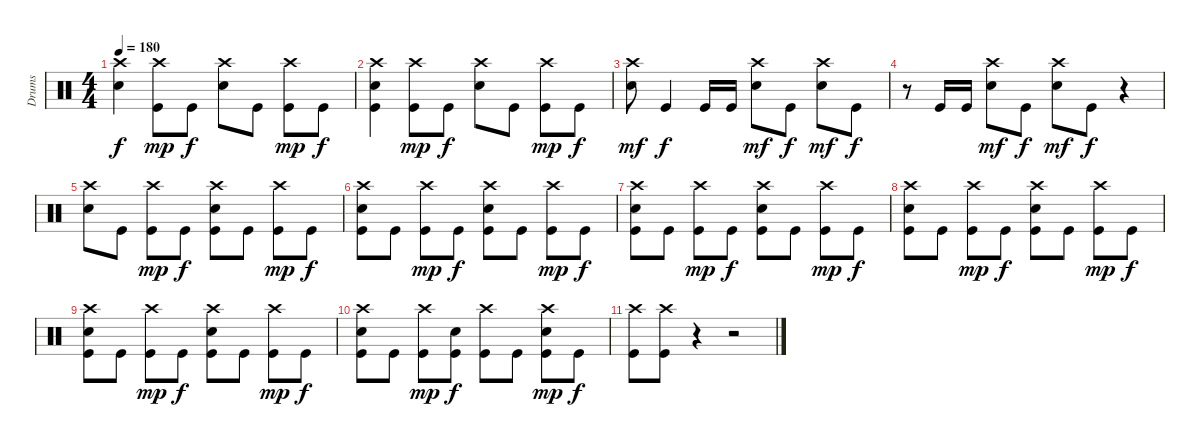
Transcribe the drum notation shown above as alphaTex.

\track ("Drums" "Drums") {instrument percussion}
\staff {score}
\articulation defaults
\ts (4 4)
\tempo 180
\clef neutral
\ks c
("Crash high (hit)" "Snare (hit) 2").4{dy f} ("Crash high (hit)" "Kick (hit)").8{dy mp} "Kick (hit)".8{dy f} ("Snare (hit) 2" "Crash high (hit)").8 "Kick (hit)".8 ("Crash high (hit)" "Kick (hit)").8{dy mp} "Kick (hit)".8{dy f} |
("Snare (hit) 2" "Crash high (hit)" "Kick (hit)").4 ("Crash high (hit)" "Kick (hit)").8{dy mp} "Kick (hit)".8{dy f} ("Crash high (hit)" "Snare (hit) 2").8 "Kick (hit)".8 ("Crash high (hit)" "Kick (hit)").8{dy mp} "Kick (hit)".8{dy f} |
("Crash high (hit)" "Snare (hit) 2").8{dy mf} "Kick (hit)".4{dy f} "Kick (hit)".16 "Kick (hit)".16 ("Crash high (hit)" "Snare (hit) 2").8{dy mf} "Kick (hit)".8{dy f} ("Crash high (hit)" "Snare (hit) 2").8{dy mf} "Kick (hit)".8{dy f} |
r.8 "Kick (hit)".16 "Kick (hit)".16 ("Crash high (hit)" "Snare (hit) 2").8{dy mf} "Kick (hit)".8{dy f} ("Crash high (hit)" "Snare (hit) 2").8{dy mf} "Kick (hit)".8{dy f} r.4 |
("Crash high (hit)" "Snare (hit) 2").8 "Kick (hit)".8 ("Crash high (hit)" "Kick (hit)").8{dy mp} "Kick (hit)".8{dy f} ("Snare (hit) 2" "Crash high (hit)" "Kick (hit)").8 "Kick (hit)".8 ("Crash high (hit)" "Kick (hit)").8{dy mp} "Kick (hit)".8{dy f} |
("Snare (hit) 2" "Crash high (hit)" "Kick (hit)").8 "Kick (hit)".8 ("Crash high (hit)" "Kick (hit)").8{dy mp} "Kick (hit)".8{dy f} ("Crash high (hit)" "Snare (hit) 2" "Kick (hit)").8 "Kick (hit)".8 ("Crash high (hit)" "Kick (hit)").8{dy mp} "Kick (hit)".8{dy f} |
("Crash high (hit)" "Snare (hit) 2" "Kick (hit)").8 "Kick (hit)".8 ("Crash high (hit)" "Kick (hit)").8{dy mp} "Kick (hit)".8{dy f} ("Snare (hit) 2" "Crash high (hit)" "Kick (hit)").8 "Kick (hit)".8 ("Crash high (hit)" "Kick (hit)").8{dy mp} "Kick (hit)".8{dy f} |
("Snare (hit) 2" "Crash high (hit)" "Kick (hit)").8 "Kick (hit)".8 ("Crash high (hit)" "Kick (hit)").8{dy mp} "Kick (hit)".8{dy f} ("Crash high (hit)" "Snare (hit) 2" "Kick (hit)").8 "Kick (hit)".8 ("Crash high (hit)" "Kick (hit)").8{dy mp} "Kick (hit)".8{dy f} |
("Crash high (hit)" "Snare (hit) 2" "Kick (hit)").8 "Kick (hit)".8 ("Crash high (hit)" "Kick (hit)").8{dy mp} "Kick (hit)".8{dy f} ("Snare (hit) 2" "Crash high (hit)" "Kick (hit)").8 "Kick (hit)".8 ("Crash high (hit)" "Kick (hit)").8{dy mp} "Kick (hit)".8{dy f} |
("Snare (hit) 2" "Crash high (hit)" "Kick (hit)").8 "Kick (hit)".8 ("Crash high (hit)" "Kick (hit)").8{dy mp} ("Snare (hit) 2" "Kick (hit)").8{dy f} ("Crash high (hit)" "Kick (hit)").8 "Kick (hit)".8 ("Crash high (hit)" "Kick (hit)" "Snare (hit) 2").8{dy mp} "Kick (hit)".8{dy f} |
("Crash high (hit)" "Kick (hit)").8 ("Kick (hit)" "Crash high (hit)").8 r.4 r.2
